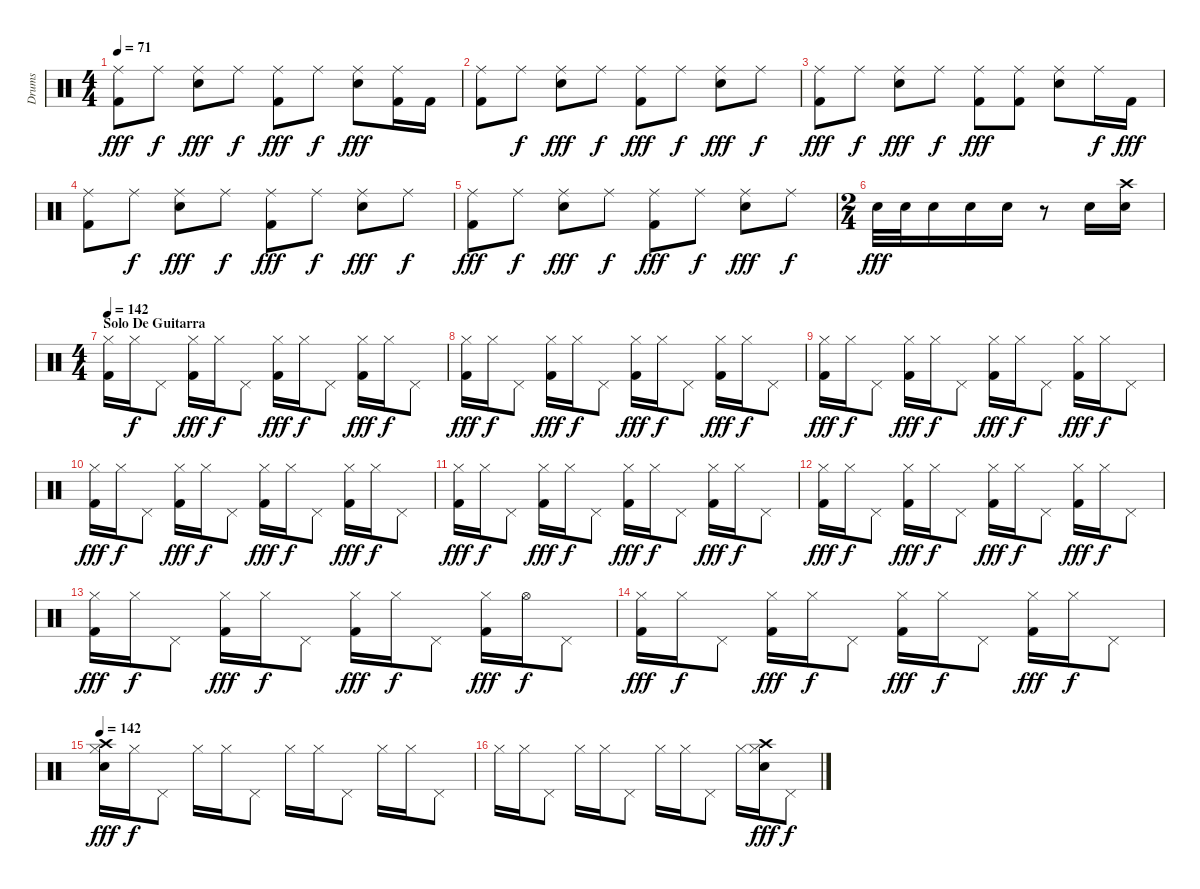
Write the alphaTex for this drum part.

\track ("Drums" "Drums") {instrument percussion}
\staff {score}
\articulation defaults
\ts (4 4)
\tempo 71
\clef neutral
\ks c
("Ride (middle)" "Kick (hit) 2").8{dy fff} "Ride (middle)".8{dy f} ("Ride (middle)" "Electric Snare (hit)").8{dy fff} "Ride (middle)".8{dy f} ("Ride (middle)" "Kick (hit) 2").8{dy fff} "Ride (middle)".8{dy f} ("Ride (middle)" "Electric Snare (hit)").8{dy fff} ("Ride (middle)" "Kick (hit) 2").16 "Kick (hit) 2".16 |
("Ride (middle)" "Kick (hit) 2").8 "Ride (middle)".8{dy f} ("Ride (middle)" "Electric Snare (hit)").8{dy fff} "Ride (middle)".8{dy f} ("Ride (middle)" "Kick (hit) 2").8{dy fff} "Ride (middle)".8{dy f} ("Ride (middle)" "Electric Snare (hit)").8{dy fff} "Ride (middle)".8{dy f} |
("Ride (middle)" "Kick (hit) 2").8{dy fff} "Ride (middle)".8{dy f} ("Ride (middle)" "Electric Snare (hit)").8{dy fff} "Ride (middle)".8{dy f} ("Ride (middle)" "Kick (hit) 2").8{dy fff} ("Ride (middle)" "Kick (hit) 2").8 ("Ride (middle)" "Electric Snare (hit)").8 "Ride (middle)".16{dy f} "Kick (hit) 2".16{dy fff} |
("Ride (middle)" "Kick (hit) 2").8 "Ride (middle)".8{dy f} ("Ride (middle)" "Electric Snare (hit)").8{dy fff} "Ride (middle)".8{dy f} ("Ride (middle)" "Kick (hit) 2").8{dy fff} "Ride (middle)".8{dy f} ("Ride (middle)" "Electric Snare (hit)").8{dy fff} "Ride (middle)".8{dy f} |
("Ride (middle)" "Kick (hit) 2").8{dy fff} "Ride (middle)".8{dy f} ("Ride (middle)" "Electric Snare (hit)").8{dy fff} "Ride (middle)".8{dy f} ("Ride (middle)" "Kick (hit) 2").8{dy fff} "Ride (middle)".8{dy f} ("Ride (middle)" "Electric Snare (hit)").8{dy fff} "Ride (middle)".8{dy f} |
\ts (2 4)
"Electric Snare (hit)".32{dy fff} "Electric Snare (hit)".32 "Electric Snare (hit)".16 "Electric Snare (hit)".16 "Electric Snare (hit)".16 r.8 "Electric Snare (hit)".16 ("Electric Snare (hit)" "Crash high (hit)").16 |
\ts (4 4)
\section ("" "Solo De Guitarra")
\tempo 142
("Hi-Hat (closed)" "Kick (hit) 2").16 "Hi-Hat (closed)".16{dy f} "Pedal Hi-Hat (hit)".8 ("Hi-Hat (closed)" "Kick (hit) 2").16{dy fff} "Hi-Hat (closed)".16{dy f} "Pedal Hi-Hat (hit)".8 ("Hi-Hat (closed)" "Kick (hit) 2").16{dy fff} "Hi-Hat (closed)".16{dy f} "Pedal Hi-Hat (hit)".8 ("Hi-Hat (closed)" "Kick (hit) 2").16{dy fff} "Hi-Hat (closed)".16{dy f} "Pedal Hi-Hat (hit)".8 |
("Hi-Hat (closed)" "Kick (hit) 2").16{dy fff} "Hi-Hat (closed)".16{dy f} "Pedal Hi-Hat (hit)".8 ("Hi-Hat (closed)" "Kick (hit) 2").16{dy fff} "Hi-Hat (closed)".16{dy f} "Pedal Hi-Hat (hit)".8 ("Hi-Hat (closed)" "Kick (hit) 2").16{dy fff} "Hi-Hat (closed)".16{dy f} "Pedal Hi-Hat (hit)".8 ("Hi-Hat (closed)" "Kick (hit) 2").16{dy fff} "Hi-Hat (closed)".16{dy f} "Pedal Hi-Hat (hit)".8 |
("Hi-Hat (closed)" "Kick (hit) 2").16{dy fff} "Hi-Hat (closed)".16{dy f} "Pedal Hi-Hat (hit)".8 ("Hi-Hat (closed)" "Kick (hit) 2").16{dy fff} "Hi-Hat (closed)".16{dy f} "Pedal Hi-Hat (hit)".8 ("Hi-Hat (closed)" "Kick (hit) 2").16{dy fff} "Hi-Hat (closed)".16{dy f} "Pedal Hi-Hat (hit)".8 ("Hi-Hat (closed)" "Kick (hit) 2").16{dy fff} "Hi-Hat (closed)".16{dy f} "Pedal Hi-Hat (hit)".8 |
("Hi-Hat (closed)" "Kick (hit) 2").16{dy fff} "Hi-Hat (closed)".16{dy f} "Pedal Hi-Hat (hit)".8 ("Hi-Hat (closed)" "Kick (hit) 2").16{dy fff} "Hi-Hat (closed)".16{dy f} "Pedal Hi-Hat (hit)".8 ("Hi-Hat (closed)" "Kick (hit) 2").16{dy fff} "Hi-Hat (closed)".16{dy f} "Pedal Hi-Hat (hit)".8 ("Hi-Hat (closed)" "Kick (hit) 2").16{dy fff} "Hi-Hat (closed)".16{dy f} "Pedal Hi-Hat (hit)".8 |
("Hi-Hat (closed)" "Kick (hit) 2").16{dy fff} "Hi-Hat (closed)".16{dy f} "Pedal Hi-Hat (hit)".8 ("Hi-Hat (closed)" "Kick (hit) 2").16{dy fff} "Hi-Hat (closed)".16{dy f} "Pedal Hi-Hat (hit)".8 ("Hi-Hat (closed)" "Kick (hit) 2").16{dy fff} "Hi-Hat (closed)".16{dy f} "Pedal Hi-Hat (hit)".8 ("Hi-Hat (closed)" "Kick (hit) 2").16{dy fff} "Hi-Hat (closed)".16{dy f} "Pedal Hi-Hat (hit)".8 |
("Hi-Hat (closed)" "Kick (hit) 2").16{dy fff} "Hi-Hat (closed)".16{dy f} "Pedal Hi-Hat (hit)".8 ("Hi-Hat (closed)" "Kick (hit) 2").16{dy fff} "Hi-Hat (closed)".16{dy f} "Pedal Hi-Hat (hit)".8 ("Hi-Hat (closed)" "Kick (hit) 2").16{dy fff} "Hi-Hat (closed)".16{dy f} "Pedal Hi-Hat (hit)".8 ("Hi-Hat (closed)" "Kick (hit) 2").16{dy fff} "Hi-Hat (closed)".16{dy f} "Pedal Hi-Hat (hit)".8 |
("Hi-Hat (closed)" "Kick (hit) 2").16{dy fff} "Hi-Hat (closed)".16{dy f} "Pedal Hi-Hat (hit)".8 ("Hi-Hat (closed)" "Kick (hit) 2").16{dy fff} "Hi-Hat (closed)".16{dy f} "Pedal Hi-Hat (hit)".8 ("Hi-Hat (closed)" "Kick (hit) 2").16{dy fff} "Hi-Hat (closed)".16{dy f} "Pedal Hi-Hat (hit)".8 ("Hi-Hat (closed)" "Kick (hit) 2").16{dy fff} "Hi-Hat (open)".16{dy f} "Pedal Hi-Hat (hit)".8 |
("Hi-Hat (closed)" "Kick (hit) 2").16{dy fff} "Hi-Hat (closed)".16{dy f} "Pedal Hi-Hat (hit)".8 ("Hi-Hat (closed)" "Kick (hit) 2").16{dy fff} "Hi-Hat (closed)".16{dy f} "Pedal Hi-Hat (hit)".8 ("Hi-Hat (closed)" "Kick (hit) 2").16{dy fff} "Hi-Hat (closed)".16{dy f} "Pedal Hi-Hat (hit)".8 ("Hi-Hat (closed)" "Kick (hit) 2").16{dy fff} "Hi-Hat (closed)".16{dy f} "Pedal Hi-Hat (hit)".8 |
\tempo 142
("Hi-Hat (closed)" "Electric Snare (hit)" "Crash high (hit)").16{dy fff} "Hi-Hat (closed)".16{dy f} "Pedal Hi-Hat (hit)".8 "Hi-Hat (closed)".16 "Hi-Hat (closed)".16 "Pedal Hi-Hat (hit)".8 "Hi-Hat (closed)".16 "Hi-Hat (closed)".16 "Pedal Hi-Hat (hit)".8 "Hi-Hat (closed)".16 "Hi-Hat (closed)".16 "Pedal Hi-Hat (hit)".8 |
"Hi-Hat (closed)".16 "Hi-Hat (closed)".16 "Pedal Hi-Hat (hit)".8 "Hi-Hat (closed)".16 "Hi-Hat (closed)".16 "Pedal Hi-Hat (hit)".8 "Hi-Hat (closed)".16 "Hi-Hat (closed)".16 "Pedal Hi-Hat (hit)".8 "Hi-Hat (closed)".16 ("Hi-Hat (closed)" "Electric Snare (hit)" "Crash high (hit)").16{dy fff} "Pedal Hi-Hat (hit)".8{dy f}
